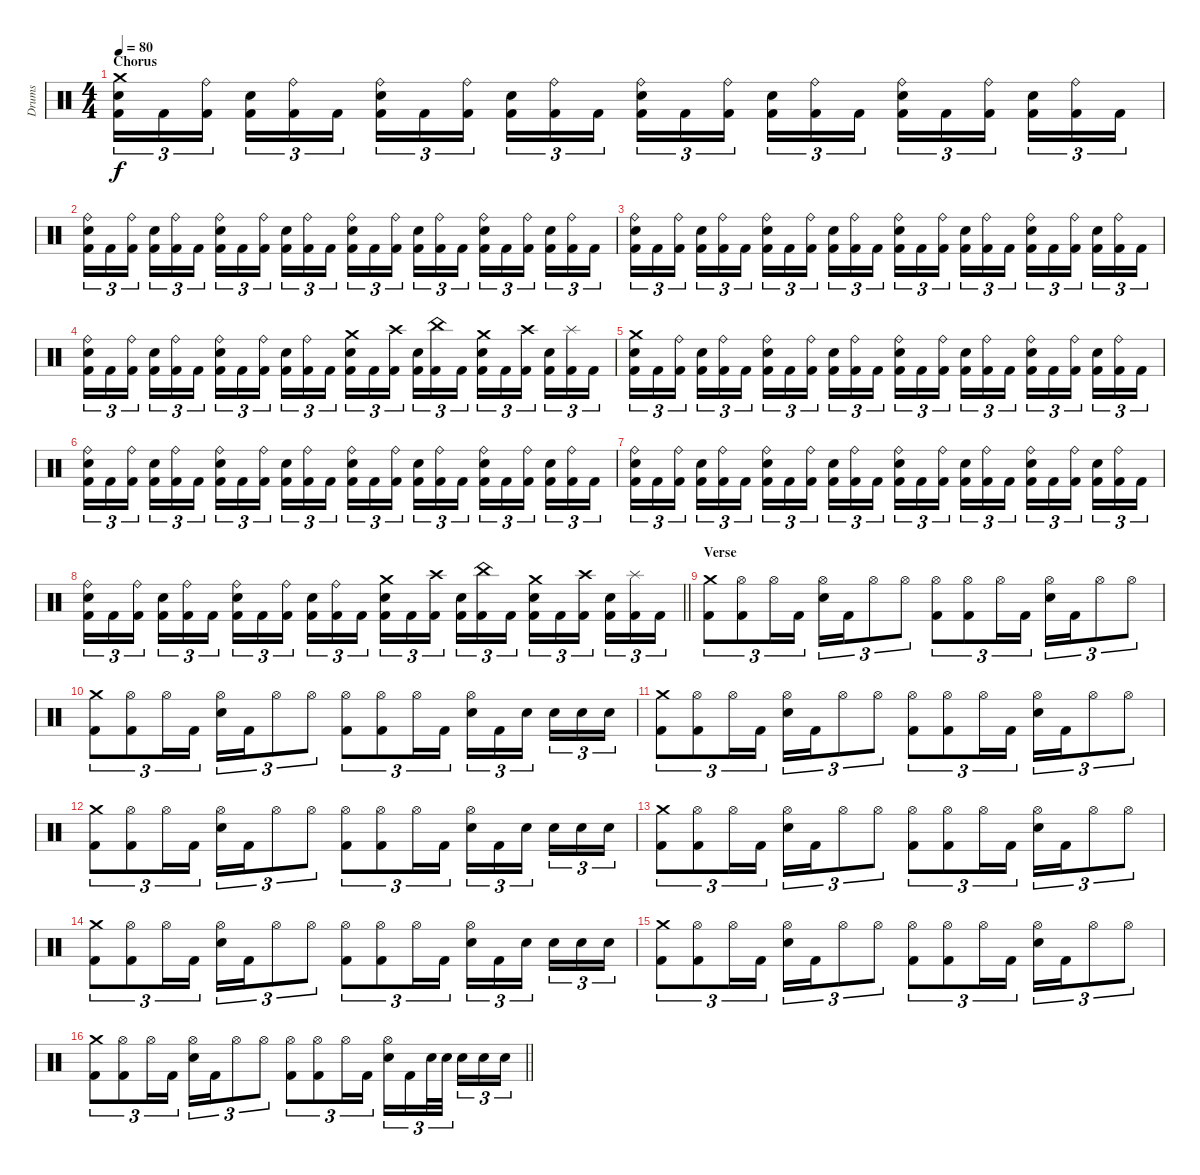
\track ("Drums" "Drums") {instrument percussion}
\staff {score}
\articulation defaults
\ts (4 4)
\section ("" "Chorus")
\tempo 80
\clef neutral
\ks c
("Crash medium (hit)" "Electric Snare (hit)" "Kick (hit) 2").16{tu (3 2) dy f} "Kick (hit) 2".16{tu (3 2)} ("Ride (bell)" "Kick (hit) 2").16{tu (3 2) beam splitsecondary} ("Electric Snare (hit)" "Kick (hit) 2").16{tu (3 2)} ("Ride (bell)" "Kick (hit) 2").16{tu (3 2)} "Kick (hit) 2".16{tu (3 2)} ("Ride (bell)" "Electric Snare (hit)" "Kick (hit) 2").16{tu (3 2)} "Kick (hit) 2".16{tu (3 2)} ("Ride (bell)" "Kick (hit) 2").16{tu (3 2) beam splitsecondary} ("Electric Snare (hit)" "Kick (hit) 2").16{tu (3 2)} ("Ride (bell)" "Kick (hit) 2").16{tu (3 2)} "Kick (hit) 2".16{tu (3 2)} ("Ride (bell)" "Electric Snare (hit)" "Kick (hit) 2").16{tu (3 2)} "Kick (hit) 2".16{tu (3 2)} ("Ride (bell)" "Kick (hit) 2").16{tu (3 2) beam splitsecondary} ("Electric Snare (hit)" "Kick (hit) 2").16{tu (3 2)} ("Ride (bell)" "Kick (hit) 2").16{tu (3 2)} "Kick (hit) 2".16{tu (3 2)} ("Ride (bell)" "Electric Snare (hit)" "Kick (hit) 2").16{tu (3 2)} "Kick (hit) 2".16{tu (3 2)} ("Ride (bell)" "Kick (hit) 2").16{tu (3 2) beam splitsecondary} ("Electric Snare (hit)" "Kick (hit) 2").16{tu (3 2)} ("Ride (bell)" "Kick (hit) 2").16{tu (3 2)} "Kick (hit) 2".16{tu (3 2)} |
("Ride (bell)" "Electric Snare (hit)" "Kick (hit) 2").16{tu (3 2)} "Kick (hit) 2".16{tu (3 2)} ("Ride (bell)" "Kick (hit) 2").16{tu (3 2) beam splitsecondary} ("Electric Snare (hit)" "Kick (hit) 2").16{tu (3 2)} ("Ride (bell)" "Kick (hit) 2").16{tu (3 2)} "Kick (hit) 2".16{tu (3 2)} ("Ride (bell)" "Electric Snare (hit)" "Kick (hit) 2").16{tu (3 2)} "Kick (hit) 2".16{tu (3 2)} ("Ride (bell)" "Kick (hit) 2").16{tu (3 2) beam splitsecondary} ("Electric Snare (hit)" "Kick (hit) 2").16{tu (3 2)} ("Ride (bell)" "Kick (hit) 2").16{tu (3 2)} "Kick (hit) 2".16{tu (3 2)} ("Ride (bell)" "Electric Snare (hit)" "Kick (hit) 2").16{tu (3 2)} "Kick (hit) 2".16{tu (3 2)} ("Ride (bell)" "Kick (hit) 2").16{tu (3 2) beam splitsecondary} ("Electric Snare (hit)" "Kick (hit) 2").16{tu (3 2)} ("Ride (bell)" "Kick (hit) 2").16{tu (3 2)} "Kick (hit) 2".16{tu (3 2)} ("Ride (bell)" "Electric Snare (hit)" "Kick (hit) 2").16{tu (3 2)} "Kick (hit) 2".16{tu (3 2)} ("Ride (bell)" "Kick (hit) 2").16{tu (3 2) beam splitsecondary} ("Electric Snare (hit)" "Kick (hit) 2").16{tu (3 2)} ("Ride (bell)" "Kick (hit) 2").16{tu (3 2)} "Kick (hit) 2".16{tu (3 2)} |
("Ride (bell)" "Electric Snare (hit)" "Kick (hit) 2").16{tu (3 2)} "Kick (hit) 2".16{tu (3 2)} ("Ride (bell)" "Kick (hit) 2").16{tu (3 2) beam splitsecondary} ("Electric Snare (hit)" "Kick (hit) 2").16{tu (3 2)} ("Ride (bell)" "Kick (hit) 2").16{tu (3 2)} "Kick (hit) 2".16{tu (3 2)} ("Ride (bell)" "Electric Snare (hit)" "Kick (hit) 2").16{tu (3 2)} "Kick (hit) 2".16{tu (3 2)} ("Ride (bell)" "Kick (hit) 2").16{tu (3 2) beam splitsecondary} ("Electric Snare (hit)" "Kick (hit) 2").16{tu (3 2)} ("Ride (bell)" "Kick (hit) 2").16{tu (3 2)} "Kick (hit) 2".16{tu (3 2)} ("Ride (bell)" "Electric Snare (hit)" "Kick (hit) 2").16{tu (3 2)} "Kick (hit) 2".16{tu (3 2)} ("Ride (bell)" "Kick (hit) 2").16{tu (3 2) beam splitsecondary} ("Electric Snare (hit)" "Kick (hit) 2").16{tu (3 2)} ("Ride (bell)" "Kick (hit) 2").16{tu (3 2)} "Kick (hit) 2".16{tu (3 2)} ("Ride (bell)" "Electric Snare (hit)" "Kick (hit) 2").16{tu (3 2)} "Kick (hit) 2".16{tu (3 2)} ("Ride (bell)" "Kick (hit) 2").16{tu (3 2) beam splitsecondary} ("Electric Snare (hit)" "Kick (hit) 2").16{tu (3 2)} ("Ride (bell)" "Kick (hit) 2").16{tu (3 2)} "Kick (hit) 2".16{tu (3 2)} |
("Ride (bell)" "Electric Snare (hit)" "Kick (hit) 2").16{tu (3 2)} "Kick (hit) 2".16{tu (3 2)} ("Ride (bell)" "Kick (hit) 2").16{tu (3 2) beam splitsecondary} ("Electric Snare (hit)" "Kick (hit) 2").16{tu (3 2)} ("Ride (bell)" "Kick (hit) 2").16{tu (3 2)} "Kick (hit) 2".16{tu (3 2)} ("Ride (bell)" "Electric Snare (hit)" "Kick (hit) 2").16{tu (3 2)} "Kick (hit) 2".16{tu (3 2)} ("Ride (bell)" "Kick (hit) 2").16{tu (3 2) beam splitsecondary} ("Electric Snare (hit)" "Kick (hit) 2").16{tu (3 2)} ("Ride (bell)" "Kick (hit) 2").16{tu (3 2)} "Kick (hit) 2".16{tu (3 2)} ("Crash medium (hit)" "Electric Snare (hit)" "Kick (hit) 2").16{tu (3 2)} "Kick (hit) 2".16{tu (3 2)} ("Crash high (hit)" "Kick (hit) 2").16{tu (3 2) beam splitsecondary} ("Electric Snare (hit)" "Kick (hit) 2").16{tu (3 2)} ("China (hit)" "Kick (hit) 2").16{tu (3 2)} "Kick (hit) 2".16{tu (3 2)} ("Crash medium (hit)" "Electric Snare (hit)" "Kick (hit) 2").16{tu (3 2)} "Kick (hit) 2".16{tu (3 2)} ("Crash high (hit)" "Kick (hit) 2").16{tu (3 2) beam splitsecondary} ("Electric Snare (hit)" "Kick (hit) 2").16{tu (3 2)} ("Splash (hit)" "Kick (hit) 2").16{tu (3 2)} "Kick (hit) 2".16{tu (3 2)} |
("Crash medium (hit)" "Electric Snare (hit)" "Kick (hit) 2").16{tu (3 2)} "Kick (hit) 2".16{tu (3 2)} ("Ride (bell)" "Kick (hit) 2").16{tu (3 2) beam splitsecondary} ("Electric Snare (hit)" "Kick (hit) 2").16{tu (3 2)} ("Ride (bell)" "Kick (hit) 2").16{tu (3 2)} "Kick (hit) 2".16{tu (3 2)} ("Ride (bell)" "Electric Snare (hit)" "Kick (hit) 2").16{tu (3 2)} "Kick (hit) 2".16{tu (3 2)} ("Ride (bell)" "Kick (hit) 2").16{tu (3 2) beam splitsecondary} ("Electric Snare (hit)" "Kick (hit) 2").16{tu (3 2)} ("Ride (bell)" "Kick (hit) 2").16{tu (3 2)} "Kick (hit) 2".16{tu (3 2)} ("Ride (bell)" "Electric Snare (hit)" "Kick (hit) 2").16{tu (3 2)} "Kick (hit) 2".16{tu (3 2)} ("Ride (bell)" "Kick (hit) 2").16{tu (3 2) beam splitsecondary} ("Electric Snare (hit)" "Kick (hit) 2").16{tu (3 2)} ("Ride (bell)" "Kick (hit) 2").16{tu (3 2)} "Kick (hit) 2".16{tu (3 2)} ("Ride (bell)" "Electric Snare (hit)" "Kick (hit) 2").16{tu (3 2)} "Kick (hit) 2".16{tu (3 2)} ("Ride (bell)" "Kick (hit) 2").16{tu (3 2) beam splitsecondary} ("Electric Snare (hit)" "Kick (hit) 2").16{tu (3 2)} ("Ride (bell)" "Kick (hit) 2").16{tu (3 2)} "Kick (hit) 2".16{tu (3 2)} |
("Ride (bell)" "Electric Snare (hit)" "Kick (hit) 2").16{tu (3 2)} "Kick (hit) 2".16{tu (3 2)} ("Ride (bell)" "Kick (hit) 2").16{tu (3 2) beam splitsecondary} ("Electric Snare (hit)" "Kick (hit) 2").16{tu (3 2)} ("Ride (bell)" "Kick (hit) 2").16{tu (3 2)} "Kick (hit) 2".16{tu (3 2)} ("Ride (bell)" "Electric Snare (hit)" "Kick (hit) 2").16{tu (3 2)} "Kick (hit) 2".16{tu (3 2)} ("Ride (bell)" "Kick (hit) 2").16{tu (3 2) beam splitsecondary} ("Electric Snare (hit)" "Kick (hit) 2").16{tu (3 2)} ("Ride (bell)" "Kick (hit) 2").16{tu (3 2)} "Kick (hit) 2".16{tu (3 2)} ("Ride (bell)" "Electric Snare (hit)" "Kick (hit) 2").16{tu (3 2)} "Kick (hit) 2".16{tu (3 2)} ("Ride (bell)" "Kick (hit) 2").16{tu (3 2) beam splitsecondary} ("Electric Snare (hit)" "Kick (hit) 2").16{tu (3 2)} ("Ride (bell)" "Kick (hit) 2").16{tu (3 2)} "Kick (hit) 2".16{tu (3 2)} ("Ride (bell)" "Electric Snare (hit)" "Kick (hit) 2").16{tu (3 2)} "Kick (hit) 2".16{tu (3 2)} ("Ride (bell)" "Kick (hit) 2").16{tu (3 2) beam splitsecondary} ("Electric Snare (hit)" "Kick (hit) 2").16{tu (3 2)} ("Ride (bell)" "Kick (hit) 2").16{tu (3 2)} "Kick (hit) 2".16{tu (3 2)} |
("Ride (bell)" "Electric Snare (hit)" "Kick (hit) 2").16{tu (3 2)} "Kick (hit) 2".16{tu (3 2)} ("Ride (bell)" "Kick (hit) 2").16{tu (3 2) beam splitsecondary} ("Electric Snare (hit)" "Kick (hit) 2").16{tu (3 2)} ("Ride (bell)" "Kick (hit) 2").16{tu (3 2)} "Kick (hit) 2".16{tu (3 2)} ("Ride (bell)" "Electric Snare (hit)" "Kick (hit) 2").16{tu (3 2)} "Kick (hit) 2".16{tu (3 2)} ("Ride (bell)" "Kick (hit) 2").16{tu (3 2) beam splitsecondary} ("Electric Snare (hit)" "Kick (hit) 2").16{tu (3 2)} ("Ride (bell)" "Kick (hit) 2").16{tu (3 2)} "Kick (hit) 2".16{tu (3 2)} ("Ride (bell)" "Electric Snare (hit)" "Kick (hit) 2").16{tu (3 2)} "Kick (hit) 2".16{tu (3 2)} ("Ride (bell)" "Kick (hit) 2").16{tu (3 2) beam splitsecondary} ("Electric Snare (hit)" "Kick (hit) 2").16{tu (3 2)} ("Ride (bell)" "Kick (hit) 2").16{tu (3 2)} "Kick (hit) 2".16{tu (3 2)} ("Ride (bell)" "Electric Snare (hit)" "Kick (hit) 2").16{tu (3 2)} "Kick (hit) 2".16{tu (3 2)} ("Ride (bell)" "Kick (hit) 2").16{tu (3 2) beam splitsecondary} ("Electric Snare (hit)" "Kick (hit) 2").16{tu (3 2)} ("Ride (bell)" "Kick (hit) 2").16{tu (3 2)} "Kick (hit) 2".16{tu (3 2)} |
\barLineRight lightlight
("Ride (bell)" "Electric Snare (hit)" "Kick (hit) 2").16{tu (3 2)} "Kick (hit) 2".16{tu (3 2)} ("Ride (bell)" "Kick (hit) 2").16{tu (3 2) beam splitsecondary} ("Electric Snare (hit)" "Kick (hit) 2").16{tu (3 2)} ("Ride (bell)" "Kick (hit) 2").16{tu (3 2)} "Kick (hit) 2".16{tu (3 2)} ("Ride (bell)" "Electric Snare (hit)" "Kick (hit) 2").16{tu (3 2)} "Kick (hit) 2".16{tu (3 2)} ("Ride (bell)" "Kick (hit) 2").16{tu (3 2) beam splitsecondary} ("Electric Snare (hit)" "Kick (hit) 2").16{tu (3 2)} ("Ride (bell)" "Kick (hit) 2").16{tu (3 2)} "Kick (hit) 2".16{tu (3 2)} ("Crash medium (hit)" "Electric Snare (hit)" "Kick (hit) 2").16{tu (3 2)} "Kick (hit) 2".16{tu (3 2)} ("Crash high (hit)" "Kick (hit) 2").16{tu (3 2) beam splitsecondary} ("Electric Snare (hit)" "Kick (hit) 2").16{tu (3 2)} ("China (hit)" "Kick (hit) 2").16{tu (3 2)} "Kick (hit) 2".16{tu (3 2)} ("Crash medium (hit)" "Electric Snare (hit)" "Kick (hit) 2").16{tu (3 2)} "Kick (hit) 2".16{tu (3 2)} ("Crash high (hit)" "Kick (hit) 2").16{tu (3 2) beam splitsecondary} ("Electric Snare (hit)" "Kick (hit) 2").16{tu (3 2)} ("Splash (hit)" "Kick (hit) 2").16{tu (3 2)} "Kick (hit) 2".16{tu (3 2)} |
\section ("" "Verse")
("Crash medium (hit)" "Kick (hit) 2").8{tu (3 2)} ("Hi-Hat (open)" "Kick (hit) 2").8{tu (3 2)} "Hi-Hat (open)".16{tu (3 2)} "Kick (hit) 2".16{tu (3 2)} ("Hi-Hat (open)" "Electric Snare (hit)").16{tu (3 2)} "Kick (hit) 2".16{tu (3 2)} "Hi-Hat (open)".8{tu (3 2)} "Hi-Hat (open)".8{tu (3 2)} ("Hi-Hat (open)" "Kick (hit) 2").8{tu (3 2)} ("Hi-Hat (open)" "Kick (hit) 2").8{tu (3 2)} "Hi-Hat (open)".16{tu (3 2)} "Kick (hit) 2".16{tu (3 2)} ("Hi-Hat (open)" "Electric Snare (hit)").16{tu (3 2)} "Kick (hit) 2".16{tu (3 2)} "Hi-Hat (open)".8{tu (3 2)} "Hi-Hat (open)".8{tu (3 2)} |
("Crash medium (hit)" "Kick (hit) 2").8{tu (3 2)} ("Hi-Hat (open)" "Kick (hit) 2").8{tu (3 2)} "Hi-Hat (open)".16{tu (3 2)} "Kick (hit) 2".16{tu (3 2)} ("Hi-Hat (open)" "Electric Snare (hit)").16{tu (3 2)} "Kick (hit) 2".16{tu (3 2)} "Hi-Hat (open)".8{tu (3 2)} "Hi-Hat (open)".8{tu (3 2)} ("Hi-Hat (open)" "Kick (hit) 2").8{tu (3 2)} ("Hi-Hat (open)" "Kick (hit) 2").8{tu (3 2)} "Hi-Hat (open)".16{tu (3 2)} "Kick (hit) 2".16{tu (3 2)} ("Hi-Hat (open)" "Electric Snare (hit)").16{tu (3 2)} "Kick (hit) 2".16{tu (3 2)} "Electric Snare (hit)".16{tu (3 2) beam splitsecondary} "Electric Snare (hit)".16{tu (3 2)} "Electric Snare (hit)".16{tu (3 2)} "Electric Snare (hit)".16{tu (3 2)} |
("Crash medium (hit)" "Kick (hit) 2").8{tu (3 2)} ("Hi-Hat (open)" "Kick (hit) 2").8{tu (3 2)} "Hi-Hat (open)".16{tu (3 2)} "Kick (hit) 2".16{tu (3 2)} ("Hi-Hat (open)" "Electric Snare (hit)").16{tu (3 2)} "Kick (hit) 2".16{tu (3 2)} "Hi-Hat (open)".8{tu (3 2)} "Hi-Hat (open)".8{tu (3 2)} ("Hi-Hat (open)" "Kick (hit) 2").8{tu (3 2)} ("Hi-Hat (open)" "Kick (hit) 2").8{tu (3 2)} "Hi-Hat (open)".16{tu (3 2)} "Kick (hit) 2".16{tu (3 2)} ("Hi-Hat (open)" "Electric Snare (hit)").16{tu (3 2)} "Kick (hit) 2".16{tu (3 2)} "Hi-Hat (open)".8{tu (3 2)} "Hi-Hat (open)".8{tu (3 2)} |
("Crash medium (hit)" "Kick (hit) 2").8{tu (3 2)} ("Hi-Hat (open)" "Kick (hit) 2").8{tu (3 2)} "Hi-Hat (open)".16{tu (3 2)} "Kick (hit) 2".16{tu (3 2)} ("Hi-Hat (open)" "Electric Snare (hit)").16{tu (3 2)} "Kick (hit) 2".16{tu (3 2)} "Hi-Hat (open)".8{tu (3 2)} "Hi-Hat (open)".8{tu (3 2)} ("Hi-Hat (open)" "Kick (hit) 2").8{tu (3 2)} ("Hi-Hat (open)" "Kick (hit) 2").8{tu (3 2)} "Hi-Hat (open)".16{tu (3 2)} "Kick (hit) 2".16{tu (3 2)} ("Hi-Hat (open)" "Electric Snare (hit)").16{tu (3 2)} "Kick (hit) 2".16{tu (3 2)} "Electric Snare (hit)".16{tu (3 2) beam splitsecondary} "Electric Snare (hit)".16{tu (3 2)} "Electric Snare (hit)".16{tu (3 2)} "Electric Snare (hit)".16{tu (3 2)} |
("Crash medium (hit)" "Kick (hit) 2").8{tu (3 2)} ("Hi-Hat (open)" "Kick (hit) 2").8{tu (3 2)} "Hi-Hat (open)".16{tu (3 2)} "Kick (hit) 2".16{tu (3 2)} ("Hi-Hat (open)" "Electric Snare (hit)").16{tu (3 2)} "Kick (hit) 2".16{tu (3 2)} "Hi-Hat (open)".8{tu (3 2)} "Hi-Hat (open)".8{tu (3 2)} ("Hi-Hat (open)" "Kick (hit) 2").8{tu (3 2)} ("Hi-Hat (open)" "Kick (hit) 2").8{tu (3 2)} "Hi-Hat (open)".16{tu (3 2)} "Kick (hit) 2".16{tu (3 2)} ("Hi-Hat (open)" "Electric Snare (hit)").16{tu (3 2)} "Kick (hit) 2".16{tu (3 2)} "Hi-Hat (open)".8{tu (3 2)} "Hi-Hat (open)".8{tu (3 2)} |
("Crash medium (hit)" "Kick (hit) 2").8{tu (3 2)} ("Hi-Hat (open)" "Kick (hit) 2").8{tu (3 2)} "Hi-Hat (open)".16{tu (3 2)} "Kick (hit) 2".16{tu (3 2)} ("Hi-Hat (open)" "Electric Snare (hit)").16{tu (3 2)} "Kick (hit) 2".16{tu (3 2)} "Hi-Hat (open)".8{tu (3 2)} "Hi-Hat (open)".8{tu (3 2)} ("Hi-Hat (open)" "Kick (hit) 2").8{tu (3 2)} ("Hi-Hat (open)" "Kick (hit) 2").8{tu (3 2)} "Hi-Hat (open)".16{tu (3 2)} "Kick (hit) 2".16{tu (3 2)} ("Hi-Hat (open)" "Electric Snare (hit)").16{tu (3 2)} "Kick (hit) 2".16{tu (3 2)} "Electric Snare (hit)".16{tu (3 2) beam splitsecondary} "Electric Snare (hit)".16{tu (3 2)} "Electric Snare (hit)".16{tu (3 2)} "Electric Snare (hit)".16{tu (3 2)} |
("Crash medium (hit)" "Kick (hit) 2").8{tu (3 2)} ("Hi-Hat (open)" "Kick (hit) 2").8{tu (3 2)} "Hi-Hat (open)".16{tu (3 2)} "Kick (hit) 2".16{tu (3 2)} ("Hi-Hat (open)" "Electric Snare (hit)").16{tu (3 2)} "Kick (hit) 2".16{tu (3 2)} "Hi-Hat (open)".8{tu (3 2)} "Hi-Hat (open)".8{tu (3 2)} ("Hi-Hat (open)" "Kick (hit) 2").8{tu (3 2)} ("Hi-Hat (open)" "Kick (hit) 2").8{tu (3 2)} "Hi-Hat (open)".16{tu (3 2)} "Kick (hit) 2".16{tu (3 2)} ("Hi-Hat (open)" "Electric Snare (hit)").16{tu (3 2)} "Kick (hit) 2".16{tu (3 2)} "Hi-Hat (open)".8{tu (3 2)} "Hi-Hat (open)".8{tu (3 2)} |
\barLineRight lightlight
("Crash medium (hit)" "Kick (hit) 2").8{tu (3 2)} ("Hi-Hat (open)" "Kick (hit) 2").8{tu (3 2)} "Hi-Hat (open)".16{tu (3 2)} "Kick (hit) 2".16{tu (3 2)} ("Hi-Hat (open)" "Electric Snare (hit)").16{tu (3 2)} "Kick (hit) 2".16{tu (3 2)} "Hi-Hat (open)".8{tu (3 2)} "Hi-Hat (open)".8{tu (3 2)} ("Hi-Hat (open)" "Kick (hit) 2").8{tu (3 2)} ("Hi-Hat (open)" "Kick (hit) 2").8{tu (3 2)} "Hi-Hat (open)".16{tu (3 2)} "Kick (hit) 2".16{tu (3 2)} ("Hi-Hat (open)" "Electric Snare (hit)").16{tu (3 2)} "Kick (hit) 2".16{tu (3 2)} "Electric Snare (hit)".32{tu (3 2)} "Electric Snare (hit)".32{tu (3 2) beam splitsecondary} "Electric Snare (hit)".16{tu (3 2)} "Electric Snare (hit)".16{tu (3 2)} "Electric Snare (hit)".16{tu (3 2)}
